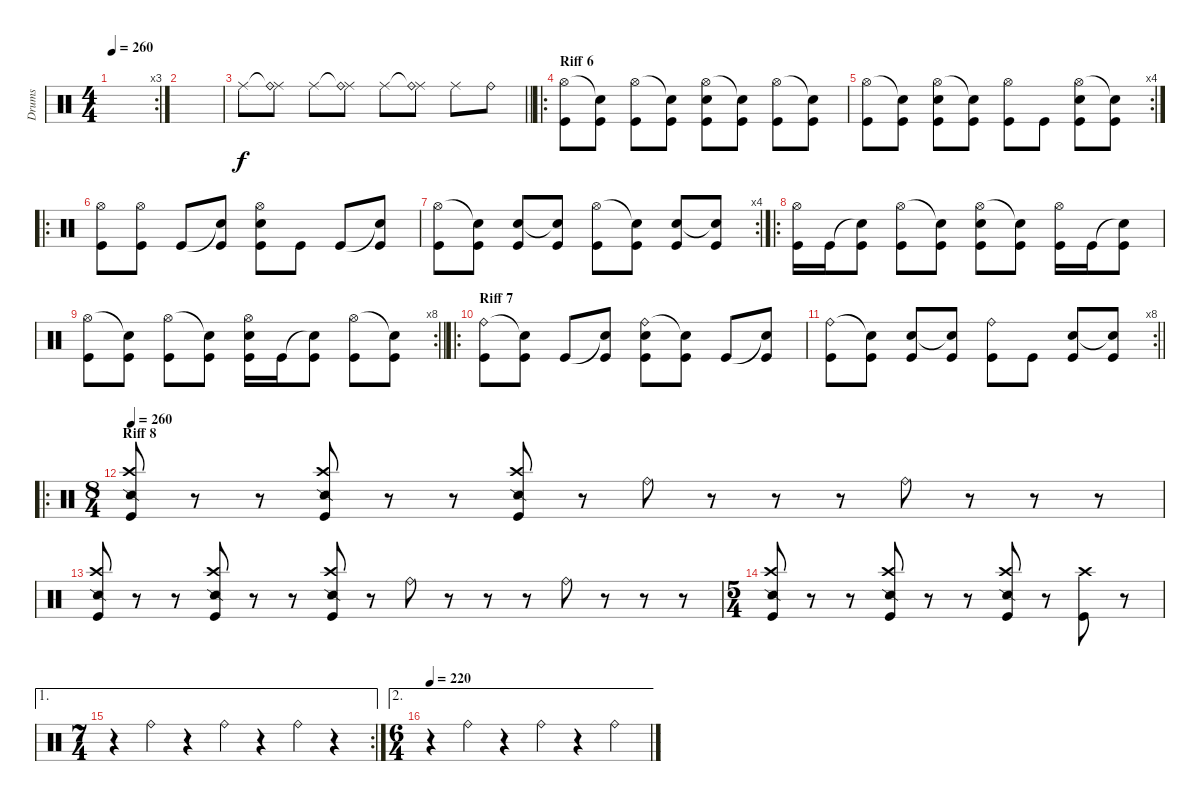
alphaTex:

\track ("Drums" "Drums") {instrument percussion}
\staff {score}
\articulation defaults
\rc 3
\ts (4 4)
\tempo 260
\clef neutral
\ks c
|
|
\barLineRight lightlight "Ride (middle)".8
("Ride (middle)"{t} "Ride (bell)").8 "Ride (middle)".8 ("Ride (middle)"{t} "Ride (bell)").8 "Ride (middle)".8 ("Ride (middle)"{t} "Ride (bell)").8 "Ride (middle)".8 "Ride (bell)".8 |
\ro
\section ("" "Riff 6")
("Hi-Hat (open)" "Kick (hit)").8 ("Snare (hit)"{t} "Kick (hit)").8 ("Hi-Hat (open)" "Kick (hit)").8 ("Snare (hit)"{t} "Kick (hit)").8 ("Hi-Hat (open)" "Electric Snare (hit)" "Kick (hit)").8 ("Snare (hit)"{t} "Kick (hit)").8 ("Hi-Hat (open)" "Kick (hit)").8 ("Snare (hit)"{t} "Kick (hit)").8 |
\rc 4
("Hi-Hat (open)" "Kick (hit)").8 ("Snare (hit)"{t} "Kick (hit)").8 ("Hi-Hat (open)" "Electric Snare (hit)" "Kick (hit)").8 ("Snare (hit)"{t} "Kick (hit)").8 ("Hi-Hat (open)" "Kick (hit)").8 "Kick (hit)".8 ("Hi-Hat (open)" "Electric Snare (hit)" "Kick (hit)").8 ("Snare (hit)"{t} "Kick (hit)").8 |
\ro
("Hi-Hat (open)" "Kick (hit)").8 ("Hi-Hat (open)" "Kick (hit)").8 "Kick (hit)".8 ("Snare (hit)"{t} "Kick (hit)").8 ("Hi-Hat (open)" "Electric Snare (hit)" "Kick (hit)").8 "Kick (hit)".8 "Kick (hit)".8 ("Snare (hit)"{t} "Kick (hit)").8 |
\rc 4
("Hi-Hat (open)" "Kick (hit)").8 ("Snare (hit)"{t} "Kick (hit)").8 ("Electric Snare (hit)" "Kick (hit)").8 ("Snare (hit)"{t} "Kick (hit)").8 ("Hi-Hat (open)" "Kick (hit)").8 ("Snare (hit)"{t} "Kick (hit)").8 ("Electric Snare (hit)" "Kick (hit)").8 ("Snare (hit)"{t} "Kick (hit)").8 |
\ro
("Hi-Hat (open)" "Kick (hit)").16 "Kick (hit)".16 ("Snare (hit)"{t} "Kick (hit)").8 ("Hi-Hat (open)" "Kick (hit)").8 ("Snare (hit)"{t} "Kick (hit)").8 ("Hi-Hat (open)" "Electric Snare (hit)" "Kick (hit)").8 ("Snare (hit)"{t} "Kick (hit)").8 ("Hi-Hat (open)" "Kick (hit)").16 "Kick (hit)".16 ("Snare (hit)"{t} "Kick (hit)").8 |
\rc 8
\barLineRight lightlight
("Hi-Hat (open)" "Kick (hit)").8 ("Snare (hit)"{t} "Kick (hit)").8 ("Hi-Hat (open)" "Kick (hit)").8 ("Snare (hit)"{t} "Kick (hit)").8 ("Hi-Hat (open)" "Electric Snare (hit)" "Kick (hit)").16 "Kick (hit)".16 ("Snare (hit)"{t} "Kick (hit)").8 ("Hi-Hat (open)" "Kick (hit)").8 ("Snare (hit)"{t} "Kick (hit)").8 |
\ro
\section ("" "Riff 7 ")
("Ride (bell)" "Kick (hit)").8 ("Snare (hit)"{t} "Kick (hit)").8 "Kick (hit)".8 ("Snare (hit)"{t} "Kick (hit)").8 ("Ride (bell)" "Electric Snare (hit)" "Kick (hit)").8 ("Snare (hit)"{t} "Kick (hit)").8 "Kick (hit)".8 ("Snare (hit)"{t} "Kick (hit)").8 |
\rc 8
\barLineRight lightlight
("Ride (bell)" "Kick (hit)").8 ("Snare (hit)"{t} "Kick (hit)").8 ("Electric Snare (hit)" "Kick (hit)").8 ("Snare (hit)"{t} "Kick (hit)").8 ("Ride (bell)" "Kick (hit)").8 "Kick (hit)".8 ("Electric Snare (hit)" "Kick (hit)").8 ("Snare (hit)"{t} "Kick (hit)").8 |
\ro
\ts (8 4)
\section ("" "Riff 8")
\tempo 260
("Crash high (hit)" "Kick (hit)" "Snare (side stick) 2").8 r.8 r.8 ("Crash high (hit)" "Kick (hit)" "Snare (side stick) 2").8 r.8 r.8 ("Crash high (hit)" "Kick (hit)" "Snare (side stick) 2").8 r.8 "Ride (bell)".8 r.8 r.8 r.8 "Ride (bell)".8 r.8 r.8 r.8 |
("Crash high (hit)" "Kick (hit)" "Snare (side stick) 2").8 r.8 r.8 ("Crash high (hit)" "Kick (hit)" "Snare (side stick) 2").8 r.8 r.8 ("Crash high (hit)" "Kick (hit)" "Snare (side stick) 2").8 r.8 "Ride (bell)".8 r.8 r.8 r.8 "Ride (bell)".8 r.8 r.8 r.8 |
\ts (5 4)
("Crash high (hit)" "Kick (hit)" "Snare (side stick) 2").8 r.8 r.8 ("Crash high (hit)" "Kick (hit)" "Snare (side stick) 2").8 r.8 r.8 ("Crash high (hit)" "Kick (hit)" "Snare (side stick) 2").8 r.8 ("Crash high (hit)" "Kick (hit)").8 r.8 |
\ae 1
\rc 2
\ts (7 4)
r.4 "Ride (bell)".4 r.4 "Ride (bell)".4 r.4 "Ride (bell)".4 r.4 |
\ae 2
\ts (6 4)
\tempo 220
r.4 "Ride (bell)".4 r.4 "Ride (bell)".4 r.4 "Ride (bell)".4
